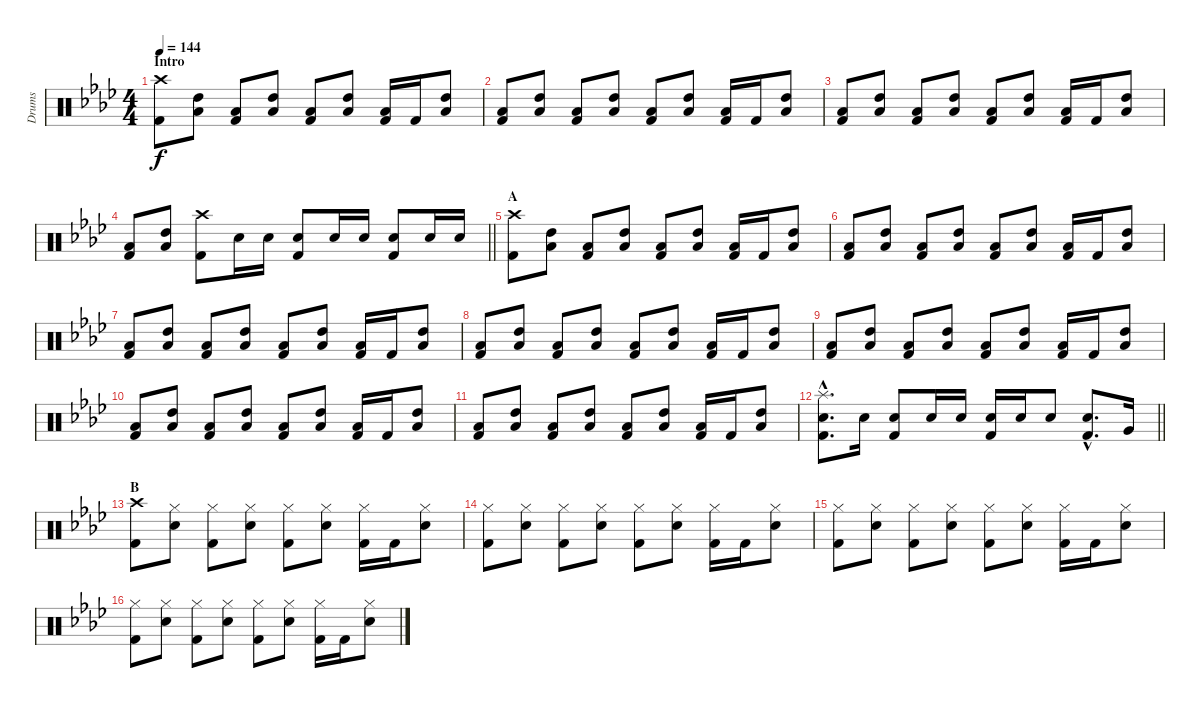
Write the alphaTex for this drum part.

\track ("Drums" "Drums") {instrument percussion}
\staff {score}
\articulation defaults
\ts (4 4)
\section ("" "Intro")
\tempo 144
\clef neutral
\ks ab
("Crash high (hit)" "Kick (hit) 2").8{dy f} ("High Tom (hit)" "Low Tom (hit)").8 ("Low Tom (hit)" "Kick (hit) 2").8 ("High Tom (hit)" "Low Tom (hit)").8 ("Low Tom (hit)" "Kick (hit) 2").8 ("High Tom (hit)" "Low Tom (hit)").8 ("Low Tom (hit)" "Kick (hit) 2").16 "Kick (hit) 2".16 ("High Tom (hit)" "Low Tom (hit)").8 |
("Low Tom (hit)" "Kick (hit) 2").8 ("High Tom (hit)" "Low Tom (hit)").8 ("Low Tom (hit)" "Kick (hit) 2").8 ("High Tom (hit)" "Low Tom (hit)").8 ("Low Tom (hit)" "Kick (hit) 2").8 ("High Tom (hit)" "Low Tom (hit)").8 ("Low Tom (hit)" "Kick (hit) 2").16 "Kick (hit) 2".16 ("High Tom (hit)" "Low Tom (hit)").8 |
("Low Tom (hit)" "Kick (hit) 2").8 ("High Tom (hit)" "Low Tom (hit)").8 ("Low Tom (hit)" "Kick (hit) 2").8 ("High Tom (hit)" "Low Tom (hit)").8 ("Low Tom (hit)" "Kick (hit) 2").8 ("High Tom (hit)" "Low Tom (hit)").8 ("Low Tom (hit)" "Kick (hit) 2").16 "Kick (hit) 2".16 ("High Tom (hit)" "Low Tom (hit)").8 |
\barLineRight lightlight
("Low Tom (hit)" "Kick (hit) 2").8 ("High Tom (hit)" "Low Tom (hit)").8 ("Crash high (hit)" "Kick (hit) 2").8 "Snare (hit) 2".16 "Snare (hit) 2".16 ("Snare (hit) 2" "Kick (hit) 2").8 "Snare (hit) 2".16 "Snare (hit) 2".16 ("Snare (hit) 2" "Kick (hit) 2").8 "Snare (hit) 2".16 "Snare (hit) 2".16 |
\section ("" "A")
("Crash high (hit)" "Kick (hit) 2").8 ("High Tom (hit)" "Low Tom (hit)").8 ("Low Tom (hit)" "Kick (hit) 2").8 ("High Tom (hit)" "Low Tom (hit)").8 ("Low Tom (hit)" "Kick (hit) 2").8 ("High Tom (hit)" "Low Tom (hit)").8 ("Low Tom (hit)" "Kick (hit) 2").16 "Kick (hit) 2".16 ("High Tom (hit)" "Low Tom (hit)").8 |
("Low Tom (hit)" "Kick (hit) 2").8 ("High Tom (hit)" "Low Tom (hit)").8 ("Low Tom (hit)" "Kick (hit) 2").8 ("High Tom (hit)" "Low Tom (hit)").8 ("Low Tom (hit)" "Kick (hit) 2").8 ("High Tom (hit)" "Low Tom (hit)").8 ("Low Tom (hit)" "Kick (hit) 2").16 "Kick (hit) 2".16 ("High Tom (hit)" "Low Tom (hit)").8 |
("Low Tom (hit)" "Kick (hit) 2").8 ("High Tom (hit)" "Low Tom (hit)").8 ("Low Tom (hit)" "Kick (hit) 2").8 ("High Tom (hit)" "Low Tom (hit)").8 ("Low Tom (hit)" "Kick (hit) 2").8 ("High Tom (hit)" "Low Tom (hit)").8 ("Low Tom (hit)" "Kick (hit) 2").16 "Kick (hit) 2".16 ("High Tom (hit)" "Low Tom (hit)").8 |
("Low Tom (hit)" "Kick (hit) 2").8 ("High Tom (hit)" "Low Tom (hit)").8 ("Low Tom (hit)" "Kick (hit) 2").8 ("High Tom (hit)" "Low Tom (hit)").8 ("Low Tom (hit)" "Kick (hit) 2").8 ("High Tom (hit)" "Low Tom (hit)").8 ("Low Tom (hit)" "Kick (hit) 2").16 "Kick (hit) 2".16 ("High Tom (hit)" "Low Tom (hit)").8 |
("Low Tom (hit)" "Kick (hit) 2").8 ("High Tom (hit)" "Low Tom (hit)").8 ("Low Tom (hit)" "Kick (hit) 2").8 ("High Tom (hit)" "Low Tom (hit)").8 ("Low Tom (hit)" "Kick (hit) 2").8 ("High Tom (hit)" "Low Tom (hit)").8 ("Low Tom (hit)" "Kick (hit) 2").16 "Kick (hit) 2".16 ("High Tom (hit)" "Low Tom (hit)").8 |
("Low Tom (hit)" "Kick (hit) 2").8 ("High Tom (hit)" "Low Tom (hit)").8 ("Low Tom (hit)" "Kick (hit) 2").8 ("High Tom (hit)" "Low Tom (hit)").8 ("Low Tom (hit)" "Kick (hit) 2").8 ("High Tom (hit)" "Low Tom (hit)").8 ("Low Tom (hit)" "Kick (hit) 2").16 "Kick (hit) 2".16 ("High Tom (hit)" "Low Tom (hit)").8 |
("Low Tom (hit)" "Kick (hit) 2").8 ("High Tom (hit)" "Low Tom (hit)").8 ("Low Tom (hit)" "Kick (hit) 2").8 ("High Tom (hit)" "Low Tom (hit)").8 ("Low Tom (hit)" "Kick (hit) 2").8 ("High Tom (hit)" "Low Tom (hit)").8 ("Low Tom (hit)" "Kick (hit) 2").16 "Kick (hit) 2".16 ("High Tom (hit)" "Low Tom (hit)").8 |
\barLineRight lightlight
("Splash (hit)"{hac} "Snare (hit) 2"{hac} "Kick (hit) 2"{hac}).8{d} "Snare (hit) 2".16 ("Snare (hit) 2" "Kick (hit) 2").8 "Snare (hit) 2".16 "Snare (hit) 2".16 ("Snare (hit) 2" "Kick (hit) 2").16 "Snare (hit) 2".16 "Snare (hit) 2".8 ("Snare (hit) 2"{hac} "Kick (hit) 2"{hac}).8{d} "Very Low Tom (hit)".16 |
\section ("" "B")
("Crash high (hit)" "Kick (hit) 2").8 ("Hi-Hat (closed)" "Snare (hit) 2").8 ("Hi-Hat (closed)" "Kick (hit) 2").8 ("Hi-Hat (closed)" "Snare (hit) 2").8 ("Hi-Hat (closed)" "Kick (hit) 2").8 ("Hi-Hat (closed)" "Snare (hit) 2").8 ("Hi-Hat (closed)" "Kick (hit) 2").16 "Kick (hit) 2".16 ("Hi-Hat (closed)" "Snare (hit) 2").8 |
("Hi-Hat (closed)" "Kick (hit) 2").8 ("Hi-Hat (closed)" "Snare (hit) 2").8 ("Hi-Hat (closed)" "Kick (hit) 2").8 ("Hi-Hat (closed)" "Snare (hit) 2").8 ("Hi-Hat (closed)" "Kick (hit) 2").8 ("Hi-Hat (closed)" "Snare (hit) 2").8 ("Hi-Hat (closed)" "Kick (hit) 2").16 "Kick (hit) 2".16 ("Hi-Hat (closed)" "Snare (hit) 2").8 |
("Hi-Hat (closed)" "Kick (hit) 2").8 ("Hi-Hat (closed)" "Snare (hit) 2").8 ("Hi-Hat (closed)" "Kick (hit) 2").8 ("Hi-Hat (closed)" "Snare (hit) 2").8 ("Hi-Hat (closed)" "Kick (hit) 2").8 ("Hi-Hat (closed)" "Snare (hit) 2").8 ("Hi-Hat (closed)" "Kick (hit) 2").16 "Kick (hit) 2".16 ("Hi-Hat (closed)" "Snare (hit) 2").8 |
("Hi-Hat (closed)" "Kick (hit) 2").8 ("Hi-Hat (closed)" "Snare (hit) 2").8 ("Hi-Hat (closed)" "Kick (hit) 2").8 ("Hi-Hat (closed)" "Snare (hit) 2").8 ("Hi-Hat (closed)" "Kick (hit) 2").8 ("Hi-Hat (closed)" "Snare (hit) 2").8 ("Hi-Hat (closed)" "Kick (hit) 2").16 "Kick (hit) 2".16 ("Hi-Hat (closed)" "Snare (hit) 2").8
